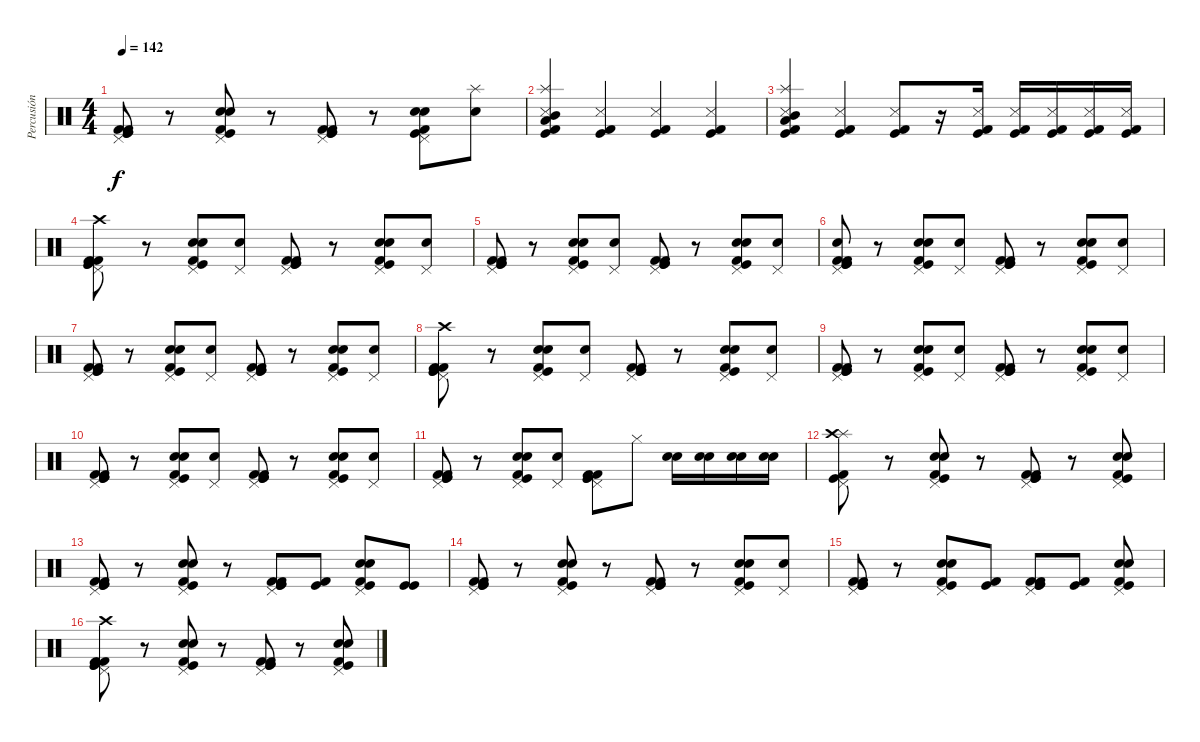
\track ("Percusión" "Percusión") {instrument percussion}
\staff {score}
\articulation defaults
\ts (4 4)
\tempo 142
\clef neutral
\ks c
("Kick (hit) 2" "Kick (hit)" "Pedal Hi-Hat (hit)" "Kick (hit) 2" "Kick (hit)").8{dy f} r.8 ("Snare (hit) 2" "Pedal Hi-Hat (hit)" "Electric Snare (hit)" "Kick (hit)" "Kick (hit) 2").8 r.8 ("Kick (hit) 2" "Kick (hit)" "Pedal Hi-Hat (hit)" "Kick (hit) 2" "Kick (hit)").8 r.8 ("Snare (hit) 2" "Pedal Hi-Hat (hit)" "Electric Snare (hit)" "Kick (hit)" "Kick (hit) 2").8 ("Electric Snare (hit)" "Splash (hit)").8 |
("Mid Tom (hit)" "Splash (hit)" "Low Tom (hit)" "Kick (hit) 2" "Kick (hit)" "Snare (side stick) 3").4 ("Kick (hit) 2" "Kick (hit)" "Snare (side stick) 3").4 ("Kick (hit) 2" "Kick (hit)" "Snare (side stick) 3").4 ("Kick (hit) 2" "Kick (hit)" "Snare (side stick) 3").4 |
("Mid Tom (hit)" "Splash (hit)" "Low Tom (hit)" "Kick (hit) 2" "Kick (hit)" "Snare (side stick) 3").4 ("Kick (hit) 2" "Kick (hit)" "Snare (side stick) 3").4 ("Kick (hit) 2" "Kick (hit)" "Snare (side stick) 3").8 r.16 ("Kick (hit) 2" "Kick (hit)" "Snare (side stick) 3").16 ("Kick (hit) 2" "Kick (hit)" "Snare (side stick) 3").16 ("Kick (hit) 2" "Kick (hit)" "Snare (side stick) 3").16 ("Kick (hit) 2" "Kick (hit)" "Snare (side stick) 3").16 ("Kick (hit) 2" "Kick (hit)" "Snare (side stick) 3").16 |
("Kick (hit) 2" "Kick (hit)" "Crash high (hit)" "Pedal Hi-Hat (hit)" "Kick (hit) 2" "Kick (hit)").8 r.8 ("Snare (hit) 2" "Pedal Hi-Hat (hit)" "Electric Snare (hit)" "Kick (hit)" "Kick (hit) 2").8 ("Pedal Hi-Hat (hit)" "Electric Snare (hit)").8 ("Kick (hit) 2" "Kick (hit)" "Pedal Hi-Hat (hit)" "Kick (hit) 2" "Kick (hit)").8 r.8 ("Snare (hit) 2" "Pedal Hi-Hat (hit)" "Electric Snare (hit)" "Kick (hit)" "Kick (hit) 2").8 ("Pedal Hi-Hat (hit)" "Electric Snare (hit)").8 |
("Kick (hit) 2" "Kick (hit)" "Pedal Hi-Hat (hit)" "Kick (hit) 2" "Kick (hit)").8 r.8 ("Snare (hit) 2" "Pedal Hi-Hat (hit)" "Electric Snare (hit)" "Kick (hit)" "Kick (hit) 2").8 ("Pedal Hi-Hat (hit)" "Electric Snare (hit)").8 ("Kick (hit) 2" "Kick (hit)" "Pedal Hi-Hat (hit)" "Kick (hit) 2" "Kick (hit)").8 r.8 ("Snare (hit) 2" "Pedal Hi-Hat (hit)" "Electric Snare (hit)" "Kick (hit)" "Kick (hit) 2").8 ("Pedal Hi-Hat (hit)" "Electric Snare (hit)").8 |
("Kick (hit) 2" "Kick (hit)" "Electric Snare (hit)" "Pedal Hi-Hat (hit)" "Kick (hit) 2" "Kick (hit)").8 r.8 ("Snare (hit) 2" "Pedal Hi-Hat (hit)" "Electric Snare (hit)" "Kick (hit)" "Kick (hit) 2").8 ("Pedal Hi-Hat (hit)" "Electric Snare (hit)").8 ("Kick (hit) 2" "Kick (hit)" "Pedal Hi-Hat (hit)" "Kick (hit) 2" "Kick (hit)").8 r.8 ("Snare (hit) 2" "Pedal Hi-Hat (hit)" "Electric Snare (hit)" "Kick (hit)" "Kick (hit) 2").8 ("Pedal Hi-Hat (hit)" "Electric Snare (hit)").8 |
("Kick (hit) 2" "Kick (hit)" "Pedal Hi-Hat (hit)" "Kick (hit) 2" "Kick (hit)").8 r.8 ("Snare (hit) 2" "Pedal Hi-Hat (hit)" "Electric Snare (hit)" "Kick (hit)" "Kick (hit) 2").8 ("Pedal Hi-Hat (hit)" "Electric Snare (hit)").8 ("Kick (hit) 2" "Kick (hit)" "Pedal Hi-Hat (hit)" "Kick (hit) 2" "Kick (hit)").8 r.8 ("Snare (hit) 2" "Pedal Hi-Hat (hit)" "Electric Snare (hit)" "Kick (hit)" "Kick (hit) 2").8 ("Pedal Hi-Hat (hit)" "Electric Snare (hit)").8 |
("Kick (hit) 2" "Kick (hit)" "Crash high (hit)" "Pedal Hi-Hat (hit)" "Kick (hit) 2" "Kick (hit)").8 r.8 ("Snare (hit) 2" "Pedal Hi-Hat (hit)" "Electric Snare (hit)" "Kick (hit)" "Kick (hit) 2").8 ("Pedal Hi-Hat (hit)" "Electric Snare (hit)").8 ("Kick (hit) 2" "Kick (hit)" "Pedal Hi-Hat (hit)" "Kick (hit) 2" "Kick (hit)").8 r.8 ("Snare (hit) 2" "Pedal Hi-Hat (hit)" "Electric Snare (hit)" "Kick (hit)" "Kick (hit) 2").8 ("Pedal Hi-Hat (hit)" "Electric Snare (hit)").8 |
("Kick (hit) 2" "Kick (hit)" "Pedal Hi-Hat (hit)" "Kick (hit) 2" "Kick (hit)").8 r.8 ("Snare (hit) 2" "Pedal Hi-Hat (hit)" "Electric Snare (hit)" "Kick (hit)" "Kick (hit) 2").8 ("Pedal Hi-Hat (hit)" "Electric Snare (hit)").8 ("Kick (hit) 2" "Kick (hit)" "Pedal Hi-Hat (hit)" "Kick (hit) 2" "Kick (hit)").8 r.8 ("Snare (hit) 2" "Pedal Hi-Hat (hit)" "Electric Snare (hit)" "Kick (hit)" "Kick (hit) 2").8 ("Pedal Hi-Hat (hit)" "Electric Snare (hit)").8 |
("Kick (hit) 2" "Kick (hit)" "Pedal Hi-Hat (hit)" "Kick (hit) 2" "Kick (hit)").8 r.8 ("Snare (hit) 2" "Pedal Hi-Hat (hit)" "Electric Snare (hit)" "Kick (hit)" "Kick (hit) 2").8 ("Pedal Hi-Hat (hit)" "Electric Snare (hit)").8 ("Kick (hit) 2" "Kick (hit)" "Pedal Hi-Hat (hit)" "Kick (hit) 2" "Kick (hit)").8 r.8 ("Snare (hit) 2" "Pedal Hi-Hat (hit)" "Electric Snare (hit)" "Kick (hit)" "Kick (hit) 2").8 ("Pedal Hi-Hat (hit)" "Electric Snare (hit)").8 |
("Kick (hit) 2" "Kick (hit)" "Pedal Hi-Hat (hit)" "Kick (hit) 2" "Kick (hit)").8 r.8 ("Snare (hit) 2" "Pedal Hi-Hat (hit)" "Electric Snare (hit)" "Kick (hit)" "Kick (hit) 2").8 ("Pedal Hi-Hat (hit)" "Electric Snare (hit)").8 ("Kick (hit) 2" "Kick (hit)" "Pedal Hi-Hat (hit)" "Kick (hit) 2" "Kick (hit)").8 "Hi-Hat (closed)".8 ("Snare (hit) 2" "Electric Snare (hit)").16 ("Snare (hit) 2" "Electric Snare (hit)").16 ("Snare (hit) 2" "Electric Snare (hit)").16 ("Snare (hit) 2" "Electric Snare (hit)").16 |
("Splash (hit)" "Crash high (hit)" "Pedal Hi-Hat (hit)" "Kick (hit) 2" "Kick (hit)").8 r.8 ("Snare (hit) 2" "Pedal Hi-Hat (hit)" "Electric Snare (hit)" "Kick (hit)" "Kick (hit) 2").8 r.8 ("Kick (hit) 2" "Kick (hit)" "Pedal Hi-Hat (hit)" "Kick (hit) 2" "Kick (hit)").8 r.8 ("Snare (hit) 2" "Pedal Hi-Hat (hit)" "Electric Snare (hit)" "Kick (hit)" "Kick (hit) 2").8 |
("Kick (hit) 2" "Kick (hit)" "Pedal Hi-Hat (hit)" "Kick (hit) 2" "Kick (hit)").8 r.8 ("Snare (hit) 2" "Pedal Hi-Hat (hit)" "Electric Snare (hit)" "Kick (hit)" "Kick (hit) 2").8 r.8 ("Kick (hit) 2" "Kick (hit)" "Pedal Hi-Hat (hit)" "Kick (hit) 2" "Kick (hit)").8 ("Kick (hit) 2" "Kick (hit)").8 ("Snare (hit) 2" "Pedal Hi-Hat (hit)" "Electric Snare (hit)" "Kick (hit)" "Kick (hit) 2").8 ("Kick (hit)" "Kick (hit)").8 |
("Kick (hit) 2" "Kick (hit)" "Pedal Hi-Hat (hit)" "Kick (hit) 2" "Kick (hit)").8 r.8 ("Snare (hit) 2" "Pedal Hi-Hat (hit)" "Electric Snare (hit)" "Kick (hit)" "Kick (hit) 2").8 r.8 ("Kick (hit) 2" "Kick (hit)" "Pedal Hi-Hat (hit)" "Kick (hit) 2" "Kick (hit)").8 r.8 ("Snare (hit) 2" "Pedal Hi-Hat (hit)" "Electric Snare (hit)" "Kick (hit)" "Kick (hit) 2").8 ("Electric Snare (hit)" "Pedal Hi-Hat (hit)").8 |
("Kick (hit) 2" "Kick (hit)" "Pedal Hi-Hat (hit)" "Kick (hit) 2" "Kick (hit)").8 r.8 ("Snare (hit) 2" "Pedal Hi-Hat (hit)" "Electric Snare (hit)" "Kick (hit)" "Kick (hit) 2").8 ("Kick (hit)" "Kick (hit) 2").8 ("Kick (hit) 2" "Kick (hit)" "Pedal Hi-Hat (hit)" "Kick (hit) 2" "Kick (hit)").8 ("Kick (hit)" "Kick (hit) 2").8 ("Snare (hit) 2" "Pedal Hi-Hat (hit)" "Electric Snare (hit)" "Kick (hit)" "Kick (hit) 2").8 |
("Kick (hit) 2" "Kick (hit)" "Crash high (hit)" "Pedal Hi-Hat (hit)" "Kick (hit) 2" "Kick (hit)").8 r.8 ("Snare (hit) 2" "Pedal Hi-Hat (hit)" "Electric Snare (hit)" "Kick (hit)" "Kick (hit) 2").8 r.8 ("Kick (hit) 2" "Kick (hit)" "Pedal Hi-Hat (hit)" "Kick (hit) 2" "Kick (hit)").8 r.8 ("Snare (hit) 2" "Pedal Hi-Hat (hit)" "Electric Snare (hit)" "Kick (hit)" "Kick (hit) 2").8
